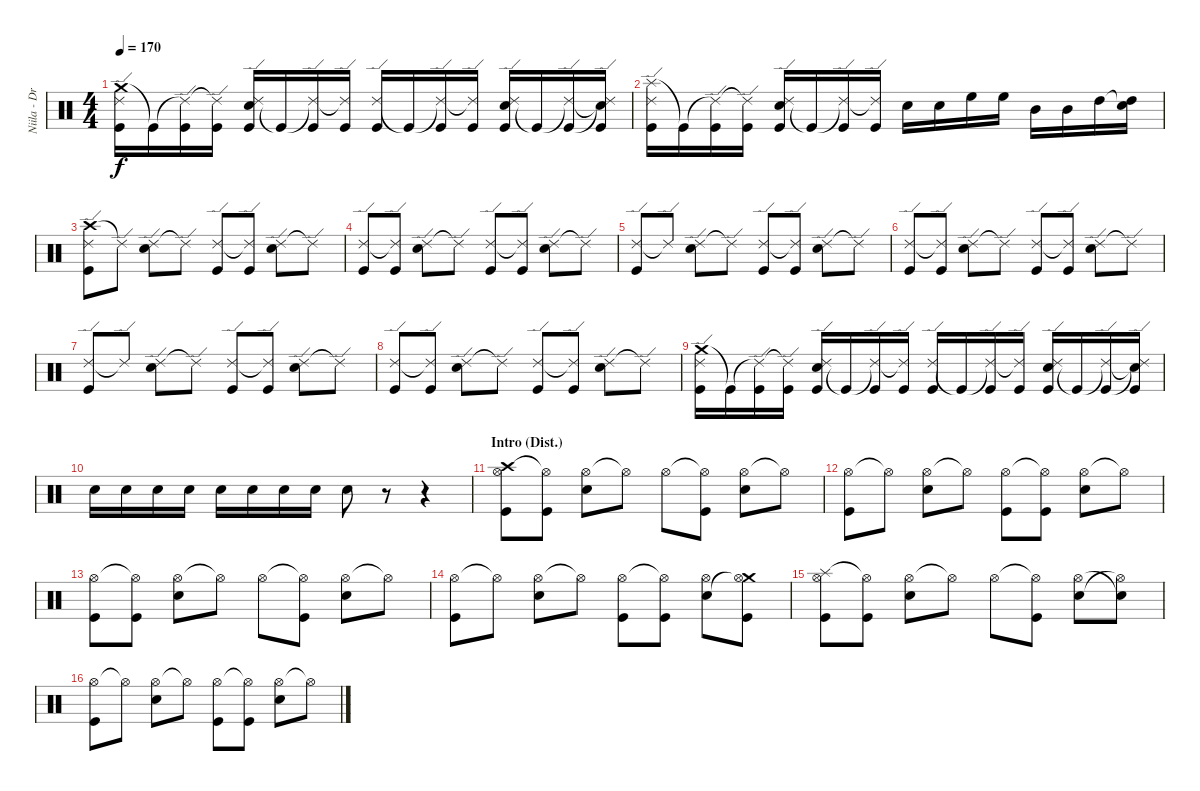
\track ("Niila - Drums" "Niila - Dr") {instrument percussion}
\staff {score}
\articulation defaults
\ts (4 4)
\tempo 170
\clef neutral
\ks c
("Crash medium (hit)" "Ride (edge) 2" "Kick (hit)").16{dy f} "Kick (hit)"{t}.16 ("Ride (edge) 2"{t} "Kick (hit)").16 ("Ride (edge) 2"{t} "Kick (hit)").16 ("Ride (edge) 2" "Snare (hit) 2" "Kick (hit)").16 "Kick (hit)"{t}.16 ("Ride (edge) 2"{t} "Kick (hit)").16 ("Ride (edge) 2"{t} "Kick (hit)").16 ("Ride (edge) 2" "Kick (hit)").16 "Kick (hit)"{t}.16 ("Ride (edge) 2"{t} "Kick (hit)").16 ("Ride (edge) 2"{t} "Kick (hit)").16 ("Ride (edge) 2" "Snare (hit) 2" "Kick (hit)").16 "Kick (hit)"{t}.16 ("Ride (edge) 2"{t} "Kick (hit)").16 ("Snare (hit)"{t} "Ride (edge) 2"{t} "Kick (hit)").16 |
("Splash (hit)" "Ride (edge) 2" "Kick (hit)").16 "Kick (hit)"{t}.16 ("Ride (edge) 2"{t} "Kick (hit)").16 ("Ride (edge) 2"{t} "Kick (hit)").16 ("Ride (edge) 2" "Snare (hit) 2" "Kick (hit)").16 "Kick (hit)"{t}.16 ("Ride (edge) 2"{t} "Kick (hit)").16 ("Ride (edge) 2"{t} "Kick (hit)").16 "Snare (hit) 2".16 "Snare (hit) 2".16 "High Floor Tom (hit)".16 "High Floor Tom (hit)".16 "Mid Tom (hit)".16 "Mid Tom (hit)".16 "High Tom (hit)".16 ("Snare (hit)"{t} "High Tom (hit)").16 |
("Crash high (hit)" "Ride (edge) 2" "Kick (hit)").8 "Ride (edge) 2"{t}.8 ("Ride (edge) 2" "Snare (hit) 2").8 "Ride (edge) 2"{t}.8 ("Ride (edge) 2" "Kick (hit)").8 ("Ride (edge) 2"{t} "Kick (hit)").8 ("Ride (edge) 2" "Snare (hit) 2").8 "Ride (edge) 2"{t}.8 |
("Ride (edge) 2" "Kick (hit)").8 ("Ride (edge) 2"{t} "Kick (hit)").8 ("Ride (edge) 2" "Snare (hit) 2").8 "Ride (edge) 2"{t}.8 ("Ride (edge) 2" "Kick (hit)").8 ("Ride (edge) 2"{t} "Kick (hit)").8 ("Ride (edge) 2" "Snare (hit) 2").8 "Ride (edge) 2"{t}.8 |
("Ride (edge) 2" "Kick (hit)").8 "Ride (edge) 2"{t}.8 ("Ride (edge) 2" "Snare (hit) 2").8 "Ride (edge) 2"{t}.8 ("Ride (edge) 2" "Kick (hit)").8 ("Ride (edge) 2"{t} "Kick (hit)").8 ("Ride (edge) 2" "Snare (hit) 2").8 "Ride (edge) 2"{t}.8 |
("Ride (edge) 2" "Kick (hit)").8 ("Ride (edge) 2"{t} "Kick (hit)").8 ("Ride (edge) 2" "Snare (hit) 2").8 "Ride (edge) 2"{t}.8 ("Ride (edge) 2" "Kick (hit)").8 ("Ride (edge) 2"{t} "Kick (hit)").8 ("Ride (edge) 2" "Snare (hit) 2").8 "Ride (edge) 2"{t}.8 |
("Ride (edge) 2" "Kick (hit)").8 "Ride (edge) 2"{t}.8 ("Ride (edge) 2" "Snare (hit) 2").8 "Ride (edge) 2"{t}.8 ("Ride (edge) 2" "Kick (hit)").8 ("Ride (edge) 2"{t} "Kick (hit)").8 ("Ride (edge) 2" "Snare (hit) 2").8 "Ride (edge) 2"{t}.8 |
("Ride (edge) 2" "Kick (hit)").8 ("Ride (edge) 2"{t} "Kick (hit)").8 ("Ride (edge) 2" "Snare (hit) 2").8 "Ride (edge) 2"{t}.8 ("Ride (edge) 2" "Kick (hit)").8 ("Ride (edge) 2"{t} "Kick (hit)").8 ("Ride (edge) 2" "Snare (hit) 2").8 "Ride (edge) 2"{t}.8 |
("Crash medium (hit)" "Ride (edge) 2" "Kick (hit)").16 "Kick (hit)"{t}.16 ("Ride (edge) 2"{t} "Kick (hit)").16 ("Ride (edge) 2"{t} "Kick (hit)").16 ("Ride (edge) 2" "Snare (hit) 2" "Kick (hit)").16 "Kick (hit)"{t}.16 ("Ride (edge) 2"{t} "Kick (hit)").16 ("Ride (edge) 2"{t} "Kick (hit)").16 ("Ride (edge) 2" "Kick (hit)").16 "Kick (hit)"{t}.16 ("Ride (edge) 2"{t} "Kick (hit)").16 ("Ride (edge) 2"{t} "Kick (hit)").16 ("Ride (edge) 2" "Snare (hit) 2" "Kick (hit)").16 "Kick (hit)"{t}.16 ("Ride (edge) 2"{t} "Kick (hit)").16 ("Snare (hit)"{t} "Ride (edge) 2"{t} "Kick (hit)").16 |
"Snare (hit) 2".16 "Snare (hit) 2".16 "Snare (hit) 2".16 "Snare (hit) 2".16 "Snare (hit) 2".16 "Snare (hit) 2".16 "Snare (hit) 2".16 "Snare (hit) 2".16 "Snare (hit) 2".8 r.8 r.4 |
\section ("" "Intro (Dist.)")
("Crash high (hit)" "Hi-Hat (open)" "Kick (hit)").8 ("Hi-Hat (open)"{t} "Kick (hit)").8 ("Hi-Hat (open)" "Snare (hit) 2").8 "Hi-Hat (open)"{t}.8 "Hi-Hat (open)".8 ("Hi-Hat (open)"{t} "Kick (hit)").8 ("Hi-Hat (open)" "Snare (hit) 2").8 "Hi-Hat (open)"{t}.8 |
("Hi-Hat (open)" "Kick (hit)").8 "Hi-Hat (open)"{t}.8 ("Hi-Hat (open)" "Snare (hit) 2").8 "Hi-Hat (open)"{t}.8 ("Hi-Hat (open)" "Kick (hit)").8 ("Hi-Hat (open)"{t} "Kick (hit)").8 ("Hi-Hat (open)" "Snare (hit) 2").8 "Hi-Hat (open)"{t}.8 |
("Hi-Hat (open)" "Kick (hit)").8 ("Hi-Hat (open)"{t} "Kick (hit)").8 ("Hi-Hat (open)" "Snare (hit) 2").8 "Hi-Hat (open)"{t}.8 "Hi-Hat (open)".8 ("Hi-Hat (open)"{t} "Kick (hit)").8 ("Hi-Hat (open)" "Snare (hit) 2").8 "Hi-Hat (open)"{t}.8 |
("Hi-Hat (open)" "Kick (hit)").8 "Hi-Hat (open)"{t}.8 ("Hi-Hat (open)" "Snare (hit) 2").8 "Hi-Hat (open)"{t}.8 ("Hi-Hat (open)" "Kick (hit)").8 ("Hi-Hat (open)"{t} "Kick (hit)").8 ("Hi-Hat (open)" "Snare (hit) 2").8 ("Crash medium (hit)" "Hi-Hat (open)"{t} "Kick (hit)").8 |
("Splash (hit)" "Hi-Hat (open)" "Kick (hit)").8 ("Hi-Hat (open)"{t} "Kick (hit)").8 ("Hi-Hat (open)" "Snare (hit) 2").8 "Hi-Hat (open)"{t}.8 "Hi-Hat (open)".8 ("Hi-Hat (open)"{t} "Kick (hit)").8 ("Hi-Hat (open)" "Snare (hit) 2").8 ("Snare (hit)"{t} "Hi-Hat (open)"{t}).8 |
("Hi-Hat (open)" "Kick (hit)").8 "Hi-Hat (open)"{t}.8 ("Hi-Hat (open)" "Snare (hit) 2").8 "Hi-Hat (open)"{t}.8 ("Hi-Hat (open)" "Kick (hit)").8 ("Hi-Hat (open)"{t} "Kick (hit)").8 ("Hi-Hat (open)" "Snare (hit) 2").8 "Hi-Hat (open)"{t}.8
